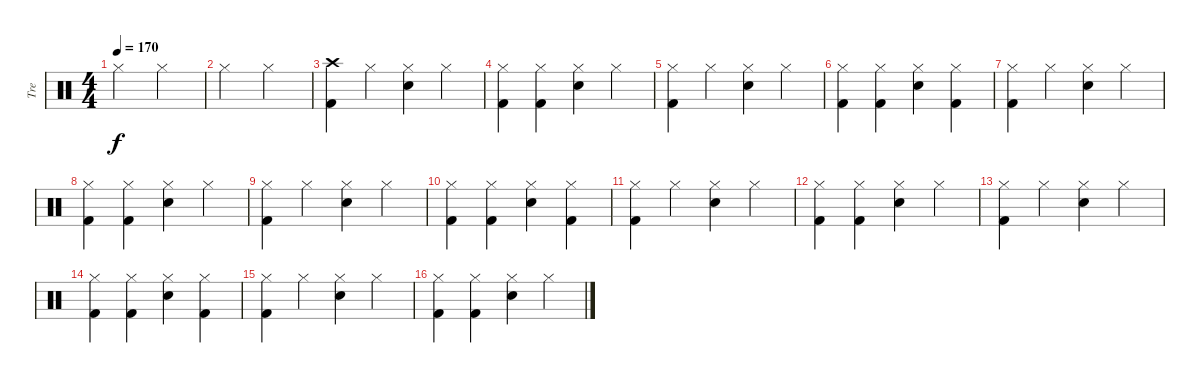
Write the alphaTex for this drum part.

\track ("Tre" "Tre") {instrument percussion}
\staff {score}
\articulation defaults
\ts (4 4)
\tempo 170
\clef neutral
\ks c "Hi-Hat (closed)".2{dy f} "Hi-Hat (closed)".2
|
"Hi-Hat (closed)".2 "Hi-Hat (closed)".2 |
("Crash high (hit)" "Kick (hit) 2").4 "Hi-Hat (closed)".4 ("Hi-Hat (closed)" "Snare (hit) 2").4 "Hi-Hat (closed)".4 |
("Hi-Hat (closed)" "Kick (hit) 2").4 ("Hi-Hat (closed)" "Kick (hit) 2").4 ("Hi-Hat (closed)" "Snare (hit) 2").4 "Hi-Hat (closed)".4 |
("Hi-Hat (closed)" "Kick (hit) 2").4 "Hi-Hat (closed)".4 ("Hi-Hat (closed)" "Snare (hit) 2").4 "Hi-Hat (closed)".4 |
("Hi-Hat (closed)" "Kick (hit) 2").4 ("Hi-Hat (closed)" "Kick (hit) 2").4 ("Hi-Hat (closed)" "Snare (hit) 2").4 ("Hi-Hat (closed)" "Kick (hit) 2").4 |
("Hi-Hat (closed)" "Kick (hit) 2").4 "Hi-Hat (closed)".4 ("Hi-Hat (closed)" "Snare (hit) 2").4 "Hi-Hat (closed)".4 |
("Hi-Hat (closed)" "Kick (hit) 2").4 ("Hi-Hat (closed)" "Kick (hit) 2").4 ("Hi-Hat (closed)" "Snare (hit) 2").4 "Hi-Hat (closed)".4 |
("Hi-Hat (closed)" "Kick (hit) 2").4 "Hi-Hat (closed)".4 ("Hi-Hat (closed)" "Snare (hit) 2").4 "Hi-Hat (closed)".4 |
("Hi-Hat (closed)" "Kick (hit) 2").4 ("Hi-Hat (closed)" "Kick (hit) 2").4 ("Hi-Hat (closed)" "Snare (hit) 2").4 ("Hi-Hat (closed)" "Kick (hit) 2").4 |
("Hi-Hat (closed)" "Kick (hit) 2").4 "Hi-Hat (closed)".4 ("Hi-Hat (closed)" "Snare (hit) 2").4 "Hi-Hat (closed)".4 |
("Hi-Hat (closed)" "Kick (hit) 2").4 ("Hi-Hat (closed)" "Kick (hit) 2").4 ("Hi-Hat (closed)" "Snare (hit) 2").4 "Hi-Hat (closed)".4 |
("Hi-Hat (closed)" "Kick (hit) 2").4 "Hi-Hat (closed)".4 ("Hi-Hat (closed)" "Snare (hit) 2").4 "Hi-Hat (closed)".4 |
("Hi-Hat (closed)" "Kick (hit) 2").4 ("Hi-Hat (closed)" "Kick (hit) 2").4 ("Hi-Hat (closed)" "Snare (hit) 2").4 ("Hi-Hat (closed)" "Kick (hit) 2").4 |
("Hi-Hat (closed)" "Kick (hit) 2").4 "Hi-Hat (closed)".4 ("Hi-Hat (closed)" "Snare (hit) 2").4 "Hi-Hat (closed)".4 |
("Hi-Hat (closed)" "Kick (hit) 2").4 ("Hi-Hat (closed)" "Kick (hit) 2").4 ("Hi-Hat (closed)" "Snare (hit) 2").4 "Hi-Hat (closed)".4
